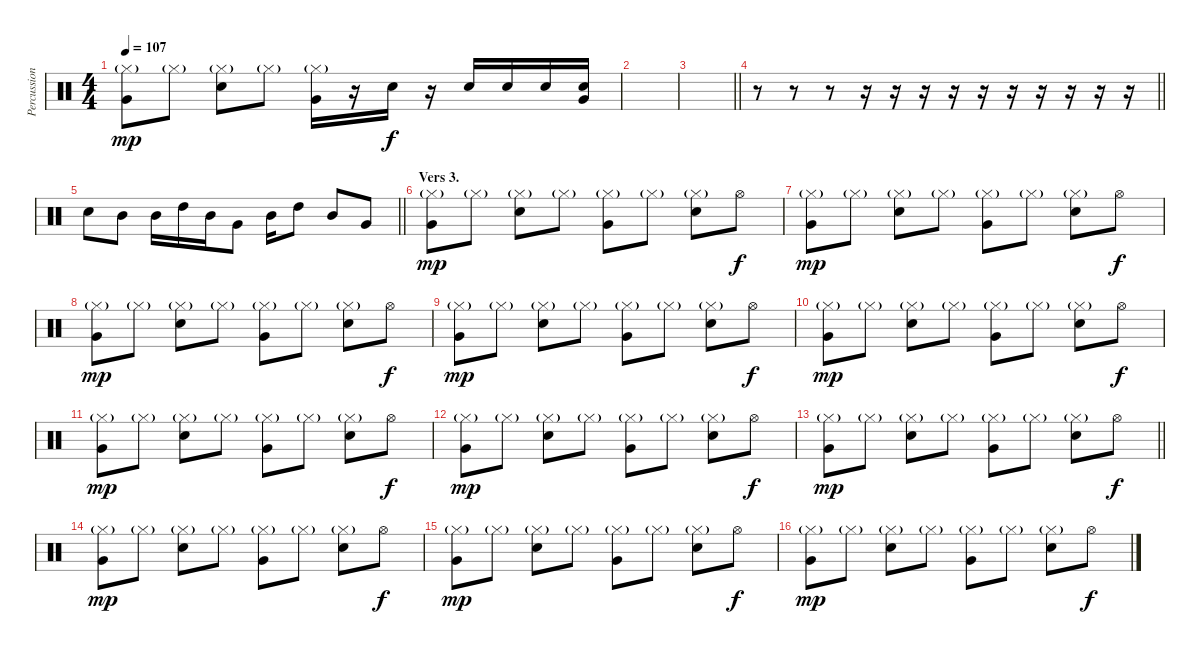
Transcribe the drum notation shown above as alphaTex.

\track ("Percussion" "Percussion") {instrument percussion}
\staff {score}
\articulation defaults
\ts (4 4)
\tempo 107
\clef neutral
\ks c
("Hi-Hat (closed)"{g} "Very Low Tom (hit)").8{dy mp} "Hi-Hat (closed)"{g}.8 ("Hi-Hat (closed)"{g} "Electric Snare (hit)").8 "Hi-Hat (closed)"{g}.8 ("Hi-Hat (closed)"{g} "Very Low Tom (hit)").16 r.16 "Electric Snare (hit)".16{dy f} r.16 "Electric Snare (hit)".16 "Electric Snare (hit)".16 "Electric Snare (hit)".16 ("Electric Snare (hit)" "Very Low Tom (hit)").16 |
|
\barLineRight lightlight
|
\barLineRight lightlight
r.8 r.8 r.8 r.16 r.16 r.16 r.16 r.16 r.16 r.16 r.16 r.16 r.16 |
\barLineRight lightlight "Electric Snare (hit)".8 "Mid Tom (hit)".8 "Mid Tom (hit)".16 "High Tom (hit)".16 "Mid Tom (hit)".16 "Very Low Tom (hit)".8 "Mid Tom (hit)".16 "High Tom (hit)".8 "Mid Tom (hit)".8 "Very Low Tom (hit)".8
|
\section ("" "Vers 3.")
("Hi-Hat (closed)"{g} "Very Low Tom (hit)").8{dy mp} "Hi-Hat (closed)"{g}.8 ("Hi-Hat (closed)"{g} "Electric Snare (hit)").8 "Hi-Hat (closed)"{g}.8 ("Hi-Hat (closed)"{g} "Very Low Tom (hit)").8 "Hi-Hat (closed)"{g}.8 ("Hi-Hat (closed)"{g} "Electric Snare (hit)").8 "Hi-Hat (open)".8{dy f} |
("Hi-Hat (closed)"{g} "Very Low Tom (hit)").8{dy mp} "Hi-Hat (closed)"{g}.8 ("Hi-Hat (closed)"{g} "Electric Snare (hit)").8 "Hi-Hat (closed)"{g}.8 ("Hi-Hat (closed)"{g} "Very Low Tom (hit)").8 "Hi-Hat (closed)"{g}.8 ("Hi-Hat (closed)"{g} "Electric Snare (hit)").8 "Hi-Hat (open)".8{dy f} |
("Hi-Hat (closed)"{g} "Very Low Tom (hit)").8{dy mp} "Hi-Hat (closed)"{g}.8 ("Hi-Hat (closed)"{g} "Electric Snare (hit)").8 "Hi-Hat (closed)"{g}.8 ("Hi-Hat (closed)"{g} "Very Low Tom (hit)").8 "Hi-Hat (closed)"{g}.8 ("Hi-Hat (closed)"{g} "Electric Snare (hit)").8 "Hi-Hat (open)".8{dy f} |
("Hi-Hat (closed)"{g} "Very Low Tom (hit)").8{dy mp} "Hi-Hat (closed)"{g}.8 ("Hi-Hat (closed)"{g} "Electric Snare (hit)").8 "Hi-Hat (closed)"{g}.8 ("Hi-Hat (closed)"{g} "Very Low Tom (hit)").8 "Hi-Hat (closed)"{g}.8 ("Hi-Hat (closed)"{g} "Electric Snare (hit)").8 "Hi-Hat (open)".8{dy f} |
("Hi-Hat (closed)"{g} "Very Low Tom (hit)").8{dy mp} "Hi-Hat (closed)"{g}.8 ("Hi-Hat (closed)"{g} "Electric Snare (hit)").8 "Hi-Hat (closed)"{g}.8 ("Hi-Hat (closed)"{g} "Very Low Tom (hit)").8 "Hi-Hat (closed)"{g}.8 ("Hi-Hat (closed)"{g} "Electric Snare (hit)").8 "Hi-Hat (open)".8{dy f} |
("Hi-Hat (closed)"{g} "Very Low Tom (hit)").8{dy mp} "Hi-Hat (closed)"{g}.8 ("Hi-Hat (closed)"{g} "Electric Snare (hit)").8 "Hi-Hat (closed)"{g}.8 ("Hi-Hat (closed)"{g} "Very Low Tom (hit)").8 "Hi-Hat (closed)"{g}.8 ("Hi-Hat (closed)"{g} "Electric Snare (hit)").8 "Hi-Hat (open)".8{dy f} |
("Hi-Hat (closed)"{g} "Very Low Tom (hit)").8{dy mp} "Hi-Hat (closed)"{g}.8 ("Hi-Hat (closed)"{g} "Electric Snare (hit)").8 "Hi-Hat (closed)"{g}.8 ("Hi-Hat (closed)"{g} "Very Low Tom (hit)").8 "Hi-Hat (closed)"{g}.8 ("Hi-Hat (closed)"{g} "Electric Snare (hit)").8 "Hi-Hat (open)".8{dy f} |
\barLineRight lightlight
("Hi-Hat (closed)"{g} "Very Low Tom (hit)").8{dy mp} "Hi-Hat (closed)"{g}.8 ("Hi-Hat (closed)"{g} "Electric Snare (hit)").8 "Hi-Hat (closed)"{g}.8 ("Hi-Hat (closed)"{g} "Very Low Tom (hit)").8 "Hi-Hat (closed)"{g}.8 ("Hi-Hat (closed)"{g} "Electric Snare (hit)").8 "Hi-Hat (open)".8{dy f} |
("Hi-Hat (closed)"{g} "Very Low Tom (hit)").8{dy mp} "Hi-Hat (closed)"{g}.8 ("Hi-Hat (closed)"{g} "Electric Snare (hit)").8 "Hi-Hat (closed)"{g}.8 ("Hi-Hat (closed)"{g} "Very Low Tom (hit)").8 "Hi-Hat (closed)"{g}.8 ("Hi-Hat (closed)"{g} "Electric Snare (hit)").8 "Hi-Hat (open)".8{dy f} |
("Hi-Hat (closed)"{g} "Very Low Tom (hit)").8{dy mp} "Hi-Hat (closed)"{g}.8 ("Hi-Hat (closed)"{g} "Electric Snare (hit)").8 "Hi-Hat (closed)"{g}.8 ("Hi-Hat (closed)"{g} "Very Low Tom (hit)").8 "Hi-Hat (closed)"{g}.8 ("Hi-Hat (closed)"{g} "Electric Snare (hit)").8 "Hi-Hat (open)".8{dy f} |
("Hi-Hat (closed)"{g} "Very Low Tom (hit)").8{dy mp} "Hi-Hat (closed)"{g}.8 ("Hi-Hat (closed)"{g} "Electric Snare (hit)").8 "Hi-Hat (closed)"{g}.8 ("Hi-Hat (closed)"{g} "Very Low Tom (hit)").8 "Hi-Hat (closed)"{g}.8 ("Hi-Hat (closed)"{g} "Electric Snare (hit)").8 "Hi-Hat (open)".8{dy f}
